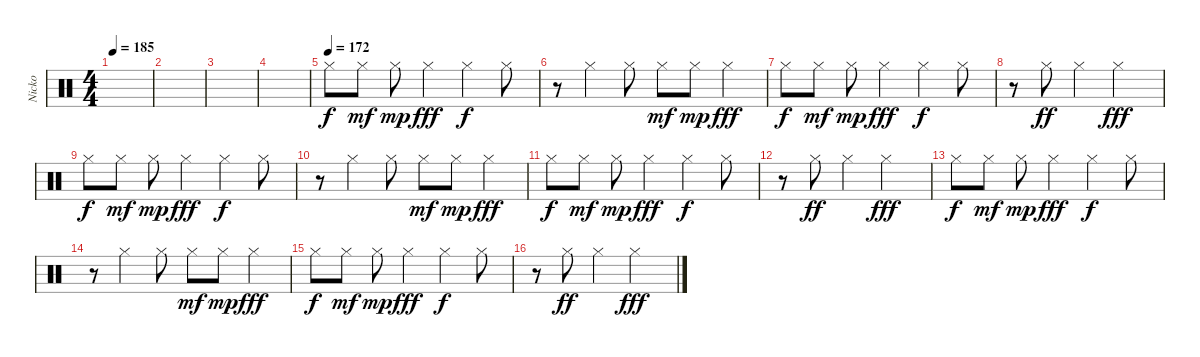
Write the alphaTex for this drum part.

\track ("Nicko" "Nicko") {instrument percussion}
\staff {score}
\articulation defaults
\ts (4 4)
\tempo 185
\clef neutral
\ks c
|
|
|
|
\tempo (172)
"Hi-Hat (closed)".8 "Hi-Hat (closed)".8{dy mf} "Hi-Hat (closed)".8{dy mp} "Hi-Hat (closed)".4{dy fff} "Hi-Hat (closed)".4{dy f} "Hi-Hat (closed)".8 |
r.8 "Hi-Hat (closed)".4 "Hi-Hat (closed)".8 "Hi-Hat (closed)".8{dy mf} "Hi-Hat (closed)".8{dy mp} "Hi-Hat (closed)".4{dy fff} |
"Hi-Hat (closed)".8{dy f} "Hi-Hat (closed)".8{dy mf} "Hi-Hat (closed)".8{dy mp} "Hi-Hat (closed)".4{dy fff} "Hi-Hat (closed)".4{dy f} "Hi-Hat (closed)".8 |
r.8 "Hi-Hat (closed)".8{dy ff} "Hi-Hat (closed)".4 "Hi-Hat (closed)".2{dy fff} |
"Hi-Hat (closed)".8{dy f} "Hi-Hat (closed)".8{dy mf} "Hi-Hat (closed)".8{dy mp} "Hi-Hat (closed)".4{dy fff} "Hi-Hat (closed)".4{dy f} "Hi-Hat (closed)".8 |
r.8 "Hi-Hat (closed)".4 "Hi-Hat (closed)".8 "Hi-Hat (closed)".8{dy mf} "Hi-Hat (closed)".8{dy mp} "Hi-Hat (closed)".4{dy fff} |
"Hi-Hat (closed)".8{dy f} "Hi-Hat (closed)".8{dy mf} "Hi-Hat (closed)".8{dy mp} "Hi-Hat (closed)".4{dy fff} "Hi-Hat (closed)".4{dy f} "Hi-Hat (closed)".8 |
r.8 "Hi-Hat (closed)".8{dy ff} "Hi-Hat (closed)".4 "Hi-Hat (closed)".2{dy fff} |
"Hi-Hat (closed)".8{dy f} "Hi-Hat (closed)".8{dy mf} "Hi-Hat (closed)".8{dy mp} "Hi-Hat (closed)".4{dy fff} "Hi-Hat (closed)".4{dy f} "Hi-Hat (closed)".8 |
r.8 "Hi-Hat (closed)".4 "Hi-Hat (closed)".8 "Hi-Hat (closed)".8{dy mf} "Hi-Hat (closed)".8{dy mp} "Hi-Hat (closed)".4{dy fff} |
"Hi-Hat (closed)".8{dy f} "Hi-Hat (closed)".8{dy mf} "Hi-Hat (closed)".8{dy mp} "Hi-Hat (closed)".4{dy fff} "Hi-Hat (closed)".4{dy f} "Hi-Hat (closed)".8 |
r.8 "Hi-Hat (closed)".8{dy ff} "Hi-Hat (closed)".4 "Hi-Hat (closed)".2{dy fff}
